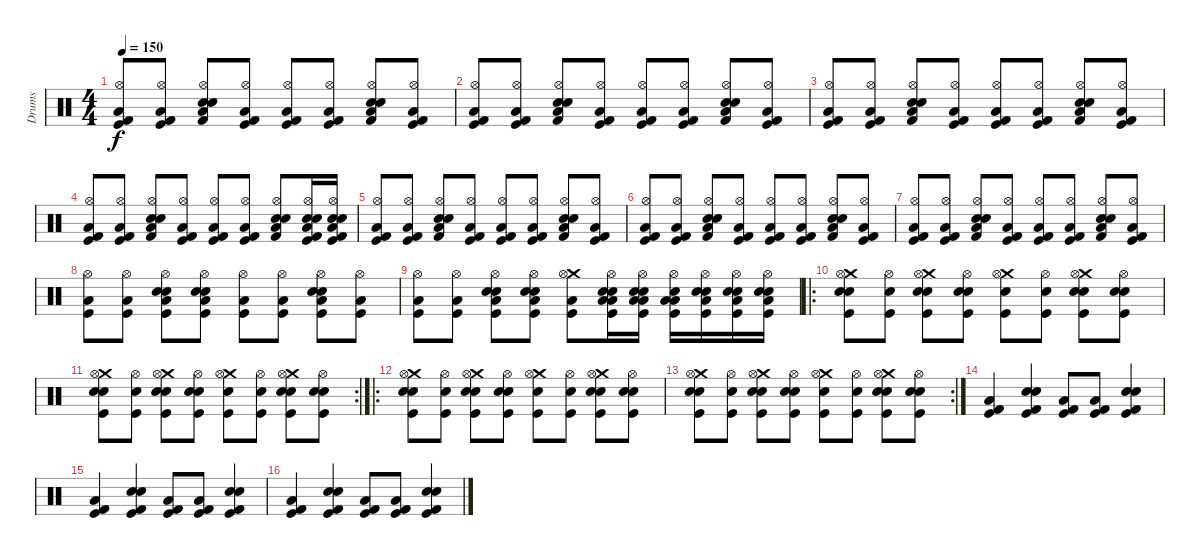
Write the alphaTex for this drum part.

\track ("Drums" "Drums") {instrument percussion}
\staff {score}
\articulation defaults
\ts (4 4)
\tempo 150
\clef neutral
\ks c
("Kick (hit) 2" "Hi-Hat (open)" "Low Floor Tom (hit)" "Kick (hit)").8{dy f} ("Kick (hit) 2" "Hi-Hat (open)" "Low Floor Tom (hit)" "Kick (hit)").8 ("Snare (hit) 2" "Kick (hit) 2" "Hi-Hat (open)" "Low Floor Tom (hit)" "Electric Snare (hit)").8 ("Kick (hit) 2" "Hi-Hat (open)" "Low Floor Tom (hit)" "Kick (hit)").8 ("Kick (hit) 2" "Hi-Hat (open)" "Low Floor Tom (hit)" "Kick (hit)").8 ("Kick (hit) 2" "Hi-Hat (open)" "Low Floor Tom (hit)" "Kick (hit)").8 ("Snare (hit) 2" "Kick (hit) 2" "Hi-Hat (open)" "Low Floor Tom (hit)" "Electric Snare (hit)").8 ("Kick (hit) 2" "Hi-Hat (open)" "Low Floor Tom (hit)" "Kick (hit)").8 |
("Kick (hit) 2" "Hi-Hat (open)" "Low Floor Tom (hit)" "Kick (hit)").8 ("Kick (hit) 2" "Hi-Hat (open)" "Low Floor Tom (hit)" "Kick (hit)").8 ("Snare (hit) 2" "Kick (hit) 2" "Hi-Hat (open)" "Low Floor Tom (hit)" "Electric Snare (hit)").8 ("Kick (hit) 2" "Hi-Hat (open)" "Low Floor Tom (hit)" "Kick (hit)").8 ("Kick (hit) 2" "Hi-Hat (open)" "Low Floor Tom (hit)" "Kick (hit)").8 ("Kick (hit) 2" "Hi-Hat (open)" "Low Floor Tom (hit)" "Kick (hit)").8 ("Snare (hit) 2" "Kick (hit) 2" "Hi-Hat (open)" "Low Floor Tom (hit)" "Electric Snare (hit)").8 ("Kick (hit) 2" "Hi-Hat (open)" "Low Floor Tom (hit)" "Kick (hit)").8 |
("Kick (hit) 2" "Hi-Hat (open)" "Low Floor Tom (hit)" "Kick (hit)").8 ("Kick (hit) 2" "Hi-Hat (open)" "Low Floor Tom (hit)" "Kick (hit)").8 ("Snare (hit) 2" "Kick (hit) 2" "Hi-Hat (open)" "Low Floor Tom (hit)" "Electric Snare (hit)").8 ("Kick (hit) 2" "Hi-Hat (open)" "Low Floor Tom (hit)" "Kick (hit)").8 ("Kick (hit) 2" "Hi-Hat (open)" "Low Floor Tom (hit)" "Kick (hit)").8 ("Kick (hit) 2" "Hi-Hat (open)" "Low Floor Tom (hit)" "Kick (hit)").8 ("Snare (hit) 2" "Kick (hit) 2" "Hi-Hat (open)" "Low Floor Tom (hit)" "Electric Snare (hit)").8 ("Kick (hit) 2" "Hi-Hat (open)" "Low Floor Tom (hit)" "Kick (hit)").8 |
("Kick (hit) 2" "Hi-Hat (open)" "Low Floor Tom (hit)" "Kick (hit)").8 ("Kick (hit) 2" "Hi-Hat (open)" "Low Floor Tom (hit)" "Kick (hit)").8 ("Snare (hit) 2" "Kick (hit) 2" "Hi-Hat (open)" "Low Floor Tom (hit)" "Electric Snare (hit)").8 ("Kick (hit) 2" "Hi-Hat (open)" "Low Floor Tom (hit)" "Kick (hit)").8 ("Kick (hit) 2" "Hi-Hat (open)" "Low Floor Tom (hit)" "Kick (hit)").8 ("Kick (hit) 2" "Hi-Hat (open)" "Low Floor Tom (hit)" "Kick (hit)").8 ("Snare (hit) 2" "Kick (hit) 2" "Hi-Hat (open)" "Low Floor Tom (hit)" "Electric Snare (hit)").8 ("Snare (hit) 2" "Kick (hit) 2" "Hi-Hat (open)" "Low Floor Tom (hit)" "Kick (hit)" "Electric Snare (hit)").16 ("Snare (hit) 2" "Kick (hit) 2" "Hi-Hat (open)" "Low Floor Tom (hit)" "Kick (hit)" "Electric Snare (hit)").16 |
("Kick (hit) 2" "Hi-Hat (open)" "Low Floor Tom (hit)" "Kick (hit)").8 ("Kick (hit) 2" "Hi-Hat (open)" "Low Floor Tom (hit)" "Kick (hit)").8 ("Snare (hit) 2" "Kick (hit) 2" "Hi-Hat (open)" "Low Floor Tom (hit)" "Electric Snare (hit)").8 ("Kick (hit) 2" "Hi-Hat (open)" "Low Floor Tom (hit)" "Kick (hit)").8 ("Kick (hit) 2" "Hi-Hat (open)" "Low Floor Tom (hit)" "Kick (hit)").8 ("Kick (hit) 2" "Hi-Hat (open)" "Low Floor Tom (hit)" "Kick (hit)").8 ("Snare (hit) 2" "Kick (hit) 2" "Hi-Hat (open)" "Low Floor Tom (hit)" "Electric Snare (hit)").8 ("Kick (hit) 2" "Hi-Hat (open)" "Low Floor Tom (hit)" "Kick (hit)").8 |
("Kick (hit) 2" "Hi-Hat (open)" "Low Floor Tom (hit)" "Kick (hit)").8 ("Kick (hit) 2" "Hi-Hat (open)" "Low Floor Tom (hit)" "Kick (hit)").8 ("Snare (hit) 2" "Kick (hit) 2" "Hi-Hat (open)" "Low Floor Tom (hit)" "Electric Snare (hit)").8 ("Kick (hit) 2" "Hi-Hat (open)" "Low Floor Tom (hit)" "Kick (hit)").8 ("Kick (hit) 2" "Hi-Hat (open)" "Low Floor Tom (hit)" "Kick (hit)").8 ("Kick (hit) 2" "Hi-Hat (open)" "Low Floor Tom (hit)" "Kick (hit)").8 ("Snare (hit) 2" "Kick (hit) 2" "Hi-Hat (open)" "Low Floor Tom (hit)" "Electric Snare (hit)").8 ("Kick (hit) 2" "Hi-Hat (open)" "Low Floor Tom (hit)" "Kick (hit)").8 |
("Kick (hit) 2" "Hi-Hat (open)" "Low Floor Tom (hit)" "Kick (hit)").8 ("Kick (hit) 2" "Hi-Hat (open)" "Low Floor Tom (hit)" "Kick (hit)").8 ("Snare (hit) 2" "Kick (hit) 2" "Hi-Hat (open)" "Low Floor Tom (hit)" "Electric Snare (hit)").8 ("Kick (hit) 2" "Hi-Hat (open)" "Low Floor Tom (hit)" "Kick (hit)").8 ("Kick (hit) 2" "Hi-Hat (open)" "Low Floor Tom (hit)" "Kick (hit)").8 ("Kick (hit) 2" "Hi-Hat (open)" "Low Floor Tom (hit)" "Kick (hit)").8 ("Snare (hit) 2" "Kick (hit) 2" "Hi-Hat (open)" "Low Floor Tom (hit)" "Electric Snare (hit)").8 ("Kick (hit) 2" "Hi-Hat (open)" "Low Floor Tom (hit)" "Kick (hit)").8 |
("Low Floor Tom (hit)" "Hi-Hat (open)" "Kick (hit)").8 ("Low Floor Tom (hit)" "Hi-Hat (open)" "Kick (hit)").8 ("Snare (hit) 2" "Kick (hit)" "Low Floor Tom (hit)" "Hi-Hat (open)" "Electric Snare (hit)").8 ("Snare (hit) 2" "Kick (hit)" "Low Floor Tom (hit)" "Hi-Hat (open)" "Electric Snare (hit)").8 ("Low Floor Tom (hit)" "Hi-Hat (open)" "Kick (hit)").8 ("Low Floor Tom (hit)" "Hi-Hat (open)" "Kick (hit)").8 ("Snare (hit) 2" "Kick (hit)" "Low Floor Tom (hit)" "Hi-Hat (open)" "Electric Snare (hit)").8 ("Low Floor Tom (hit)" "Hi-Hat (open)" "Kick (hit)").8 |
("Low Floor Tom (hit)" "Hi-Hat (open)" "Kick (hit)").8 ("Low Floor Tom (hit)" "Hi-Hat (open)" "Kick (hit)").8 ("Snare (hit) 2" "Kick (hit)" "Low Floor Tom (hit)" "Hi-Hat (open)" "Electric Snare (hit)").8 ("Snare (hit) 2" "Kick (hit)" "Low Floor Tom (hit)" "Hi-Hat (open)" "Electric Snare (hit)").8 ("Crash medium (hit)" "Low Floor Tom (hit)" "Hi-Hat (open)" "Kick (hit)").8 ("Electric Snare (hit)" "Snare (hit) 2" "Low Floor Tom (hit)" "Hi-Hat (open)" "Kick (hit)" "Low Floor Tom (hit)").16 ("Snare (hit) 2" "Kick (hit)" "Low Floor Tom (hit)" "Hi-Hat (open)" "Electric Snare (hit)" "Low Floor Tom (hit)").16 ("Low Floor Tom (hit)" "Electric Snare (hit)" "Low Floor Tom (hit)" "Hi-Hat (open)" "Kick (hit)").16 ("Low Floor Tom (hit)" "Electric Snare (hit)" "Snare (hit) 2" "Hi-Hat (open)" "Kick (hit)").16 ("Low Floor Tom (hit)" "Electric Snare (hit)" "Snare (hit) 2" "Hi-Hat (open)" "Kick (hit)").16 ("Low Floor Tom (hit)" "Electric Snare (hit)" "Snare (hit) 2" "Hi-Hat (open)" "Kick (hit)").16 |
\ro
("Snare (hit) 2" "Crash medium (hit)" "Hi-Hat (open)" "Electric Snare (hit)" "Kick (hit)").8{volume 16} ("Hi-Hat (open)" "Electric Snare (hit)" "Kick (hit)").8 ("Crash medium (hit)" "Hi-Hat (open)" "Snare (hit) 2" "Electric Snare (hit)" "Kick (hit)").8 ("Hi-Hat (open)" "Snare (hit) 2" "Electric Snare (hit)" "Kick (hit)").8 ("Crash medium (hit)" "Hi-Hat (open)" "Electric Snare (hit)" "Kick (hit)").8 ("Hi-Hat (open)" "Electric Snare (hit)" "Kick (hit)").8 ("Crash medium (hit)" "Hi-Hat (open)" "Snare (hit) 2" "Electric Snare (hit)" "Kick (hit)").8 ("Hi-Hat (open)" "Snare (hit) 2" "Electric Snare (hit)" "Kick (hit)").8 |
\rc 2
("Snare (hit) 2" "Crash medium (hit)" "Hi-Hat (open)" "Electric Snare (hit)" "Kick (hit)").8 ("Hi-Hat (open)" "Electric Snare (hit)" "Kick (hit)").8 ("Crash medium (hit)" "Hi-Hat (open)" "Snare (hit) 2" "Electric Snare (hit)" "Kick (hit)").8 ("Hi-Hat (open)" "Snare (hit) 2" "Electric Snare (hit)" "Kick (hit)").8 ("Crash medium (hit)" "Hi-Hat (open)" "Electric Snare (hit)" "Kick (hit)").8 ("Hi-Hat (open)" "Electric Snare (hit)" "Kick (hit)").8 ("Crash medium (hit)" "Hi-Hat (open)" "Snare (hit) 2" "Electric Snare (hit)" "Kick (hit)").8 ("Hi-Hat (open)" "Snare (hit) 2" "Electric Snare (hit)" "Kick (hit)").8 |
\ro
("Snare (hit) 2" "Crash medium (hit)" "Hi-Hat (open)" "Electric Snare (hit)" "Kick (hit)").8{volume 16} ("Hi-Hat (open)" "Electric Snare (hit)" "Kick (hit)").8 ("Crash medium (hit)" "Hi-Hat (open)" "Snare (hit) 2" "Electric Snare (hit)" "Kick (hit)").8 ("Hi-Hat (open)" "Snare (hit) 2" "Electric Snare (hit)" "Kick (hit)").8 ("Crash medium (hit)" "Hi-Hat (open)" "Electric Snare (hit)" "Kick (hit)").8 ("Hi-Hat (open)" "Electric Snare (hit)" "Kick (hit)").8 ("Crash medium (hit)" "Hi-Hat (open)" "Snare (hit) 2" "Electric Snare (hit)" "Kick (hit)").8 ("Hi-Hat (open)" "Snare (hit) 2" "Electric Snare (hit)" "Kick (hit)").8 |
\rc 2
("Snare (hit) 2" "Crash medium (hit)" "Hi-Hat (open)" "Electric Snare (hit)" "Kick (hit)").8 ("Hi-Hat (open)" "Electric Snare (hit)" "Kick (hit)").8 ("Crash medium (hit)" "Hi-Hat (open)" "Snare (hit) 2" "Electric Snare (hit)" "Kick (hit)").8 ("Hi-Hat (open)" "Snare (hit) 2" "Electric Snare (hit)" "Kick (hit)").8 ("Crash medium (hit)" "Hi-Hat (open)" "Electric Snare (hit)" "Kick (hit)").8 ("Hi-Hat (open)" "Electric Snare (hit)" "Kick (hit)").8 ("Crash medium (hit)" "Hi-Hat (open)" "Snare (hit) 2" "Electric Snare (hit)" "Kick (hit)").8 ("Hi-Hat (open)" "Snare (hit) 2" "Electric Snare (hit)" "Kick (hit)").8 |
("Kick (hit) 2" "Low Floor Tom (hit)" "Kick (hit)").4 ("Kick (hit) 2" "Snare (hit) 2" "Electric Snare (hit)" "Kick (hit)").4 ("Kick (hit) 2" "Low Floor Tom (hit)" "Kick (hit)").8 ("Kick (hit) 2" "Low Floor Tom (hit)" "Kick (hit)").8 ("Kick (hit) 2" "Snare (hit) 2" "Electric Snare (hit)" "Kick (hit)").4 |
("Kick (hit) 2" "Low Floor Tom (hit)" "Kick (hit)").4 ("Kick (hit) 2" "Snare (hit) 2" "Electric Snare (hit)" "Kick (hit)").4 ("Kick (hit) 2" "Low Floor Tom (hit)" "Kick (hit)").8 ("Kick (hit) 2" "Low Floor Tom (hit)" "Kick (hit)").8 ("Kick (hit) 2" "Snare (hit) 2" "Electric Snare (hit)" "Kick (hit)").4 |
("Kick (hit) 2" "Low Floor Tom (hit)" "Kick (hit)").4 ("Kick (hit) 2" "Snare (hit) 2" "Electric Snare (hit)" "Kick (hit)").4 ("Kick (hit) 2" "Low Floor Tom (hit)" "Kick (hit)").8 ("Kick (hit) 2" "Low Floor Tom (hit)" "Kick (hit)").8 ("Kick (hit) 2" "Snare (hit) 2" "Electric Snare (hit)" "Kick (hit)").4
